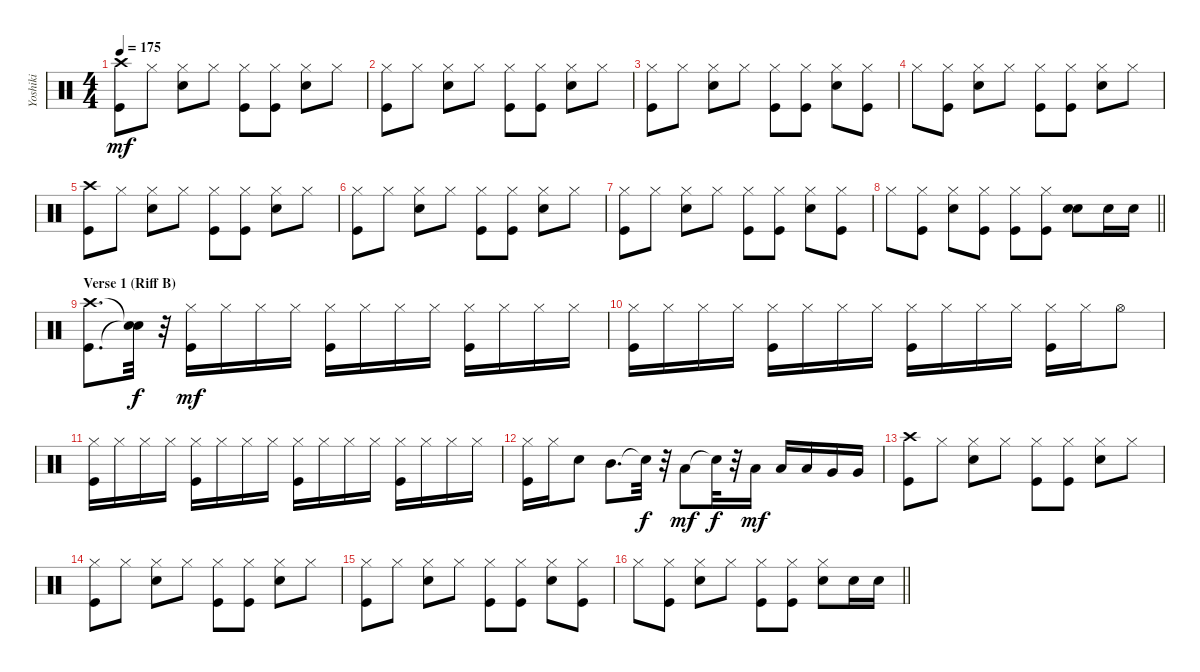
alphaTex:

\track ("Yoshiki" "Yoshiki") {instrument percussion}
\staff {score}
\articulation defaults
\ts (4 4)
\tempo 175
\clef neutral
\ks c
("Crash high (hit)" "Kick (hit)").8{dy mf} "Hi-Hat (closed)".8 ("Snare (hit) 2" "Hi-Hat (closed)").8 "Hi-Hat (closed)".8 ("Hi-Hat (closed)" "Kick (hit)").8 ("Hi-Hat (closed)" "Kick (hit)").8 ("Snare (hit) 2" "Hi-Hat (closed)").8 "Hi-Hat (closed)".8 |
("Hi-Hat (closed)" "Kick (hit)").8 "Hi-Hat (closed)".8 ("Snare (hit) 2" "Hi-Hat (closed)").8 "Hi-Hat (closed)".8 ("Hi-Hat (closed)" "Kick (hit)").8 ("Hi-Hat (closed)" "Kick (hit)").8 ("Snare (hit) 2" "Hi-Hat (closed)").8 "Hi-Hat (closed)".8 |
("Hi-Hat (closed)" "Kick (hit)").8 "Hi-Hat (closed)".8 ("Snare (hit) 2" "Hi-Hat (closed)").8 "Hi-Hat (closed)".8 ("Hi-Hat (closed)" "Kick (hit)").8 ("Hi-Hat (closed)" "Kick (hit)").8 ("Snare (hit) 2" "Hi-Hat (closed)").8 ("Hi-Hat (closed)" "Kick (hit)").8 |
"Hi-Hat (closed)".8 ("Hi-Hat (closed)" "Kick (hit)").8 ("Snare (hit) 2" "Hi-Hat (closed)").8 "Hi-Hat (closed)".8 ("Kick (hit)" "Hi-Hat (closed)").8 ("Kick (hit)" "Hi-Hat (closed)").8 ("Snare (hit) 2" "Hi-Hat (closed)").8 "Hi-Hat (closed)".8 |
("Crash high (hit)" "Kick (hit)").8 "Hi-Hat (closed)".8 ("Snare (hit) 2" "Hi-Hat (closed)").8 "Hi-Hat (closed)".8 ("Hi-Hat (closed)" "Kick (hit)").8 ("Hi-Hat (closed)" "Kick (hit)").8 ("Snare (hit) 2" "Hi-Hat (closed)").8 "Hi-Hat (closed)".8 |
("Hi-Hat (closed)" "Kick (hit)").8 "Hi-Hat (closed)".8 ("Snare (hit) 2" "Hi-Hat (closed)").8 "Hi-Hat (closed)".8 ("Hi-Hat (closed)" "Kick (hit)").8 ("Hi-Hat (closed)" "Kick (hit)").8 ("Snare (hit) 2" "Hi-Hat (closed)").8 "Hi-Hat (closed)".8 |
("Hi-Hat (closed)" "Kick (hit)").8 "Hi-Hat (closed)".8 ("Snare (hit) 2" "Hi-Hat (closed)").8 "Hi-Hat (closed)".8 ("Hi-Hat (closed)" "Kick (hit)").8 ("Hi-Hat (closed)" "Kick (hit)").8 ("Snare (hit) 2" "Hi-Hat (closed)").8 ("Hi-Hat (closed)" "Kick (hit)").8 |
\barLineRight lightlight "Hi-Hat (closed)".8
("Hi-Hat (closed)" "Kick (hit)").8 ("Snare (hit) 2" "Hi-Hat (closed)").8 ("Hi-Hat (closed)" "Kick (hit)").8 ("Hi-Hat (closed)" "Kick (hit)").8 ("Hi-Hat (closed)" "Kick (hit)").8 ("Snare (hit) 2" "Snare (hit) 2").8 "Snare (hit) 2".16 "Snare (hit) 2".16 |
\section ("" "Verse 1 (Riff B)")
("Crash high (hit)" "Kick (hit)").8{d} ("Snare (hit)"{t} "Snare (hit)"{t}).32{dy f} r.32 ("Hi-Hat (closed)" "Kick (hit)").16{dy mf} "Hi-Hat (closed)".16 "Hi-Hat (closed)".16 "Hi-Hat (closed)".16 ("Hi-Hat (closed)" "Kick (hit)").16 "Hi-Hat (closed)".16 "Hi-Hat (closed)".16 "Hi-Hat (closed)".16 ("Hi-Hat (closed)" "Kick (hit)").16 "Hi-Hat (closed)".16 "Hi-Hat (closed)".16 "Hi-Hat (closed)".16 |
("Hi-Hat (closed)" "Kick (hit)").16 "Hi-Hat (closed)".16 "Hi-Hat (closed)".16 "Hi-Hat (closed)".16 ("Hi-Hat (closed)" "Kick (hit)").16 "Hi-Hat (closed)".16 "Hi-Hat (closed)".16 "Hi-Hat (closed)".16 ("Hi-Hat (closed)" "Kick (hit)").16 "Hi-Hat (closed)".16 "Hi-Hat (closed)".16 "Hi-Hat (closed)".16 ("Kick (hit)" "Hi-Hat (closed)").16 "Hi-Hat (closed)".16 "Hi-Hat (open)".8 |
("Hi-Hat (closed)" "Kick (hit)").16 "Hi-Hat (closed)".16 "Hi-Hat (closed)".16 "Hi-Hat (closed)".16 ("Hi-Hat (closed)" "Kick (hit)").16 "Hi-Hat (closed)".16 "Hi-Hat (closed)".16 "Hi-Hat (closed)".16 ("Hi-Hat (closed)" "Kick (hit)").16 "Hi-Hat (closed)".16 "Hi-Hat (closed)".16 "Hi-Hat (closed)".16 ("Hi-Hat (closed)" "Kick (hit)").16 "Hi-Hat (closed)".16 "Hi-Hat (closed)".16 "Hi-Hat (closed)".16 |
("Hi-Hat (closed)" "Kick (hit)").16 "Hi-Hat (closed)".16 "Snare (hit) 2".8 "Mid Tom (hit)".8{d} "Snare (hit)"{t}.32{dy f} r.32 "Low Tom (hit)".8{dy mf} "Snare (hit)"{t}.32{dy f} r.32 "Low Tom (hit)".16{dy mf} "Low Tom (hit)".16 "Low Tom (hit)".16 "Very Low Tom (hit)".16 "Very Low Tom (hit)".16 |
("Crash high (hit)" "Kick (hit)").8 "Hi-Hat (closed)".8 ("Snare (hit) 2" "Hi-Hat (closed)").8 "Hi-Hat (closed)".8 ("Hi-Hat (closed)" "Kick (hit)").8 ("Hi-Hat (closed)" "Kick (hit)").8 ("Snare (hit) 2" "Hi-Hat (closed)").8 "Hi-Hat (closed)".8 |
("Hi-Hat (closed)" "Kick (hit)").8 "Hi-Hat (closed)".8 ("Snare (hit) 2" "Hi-Hat (closed)").8 "Hi-Hat (closed)".8 ("Hi-Hat (closed)" "Kick (hit)").8 ("Hi-Hat (closed)" "Kick (hit)").8 ("Snare (hit) 2" "Hi-Hat (closed)").8 "Hi-Hat (closed)".8 |
("Hi-Hat (closed)" "Kick (hit)").8 "Hi-Hat (closed)".8 ("Snare (hit) 2" "Hi-Hat (closed)").8 "Hi-Hat (closed)".8 ("Hi-Hat (closed)" "Kick (hit)").8 ("Hi-Hat (closed)" "Kick (hit)").8 ("Snare (hit) 2" "Hi-Hat (closed)").8 ("Hi-Hat (closed)" "Kick (hit)").8 |
\barLineRight lightlight "Hi-Hat (closed)".8
("Hi-Hat (closed)" "Kick (hit)").8 ("Snare (hit) 2" "Hi-Hat (closed)").8 "Hi-Hat (closed)".8 ("Kick (hit)" "Hi-Hat (closed)").8 ("Kick (hit)" "Hi-Hat (closed)").8 ("Snare (hit) 2" "Hi-Hat (closed)").8 "Snare (hit) 2".16 "Snare (hit) 2".16
